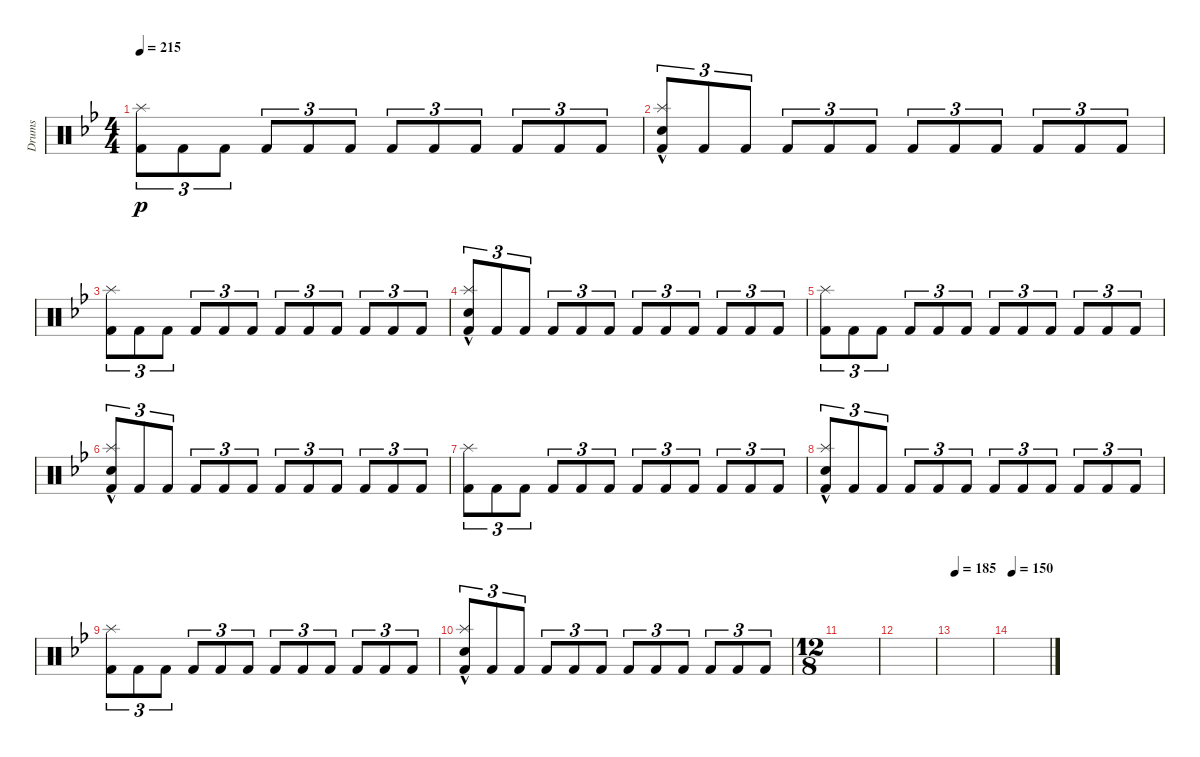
\defaultSystemsLayout 4
\bracketExtendMode groupsimilarinstruments
\otherSystemsTrackNameOrientation horizontal
\track ("Drumkit" "Drums") {instrument percussion}
\staff {score}
\articulation defaults
\ts (4 4)
\tempo 215
\clef neutral
\ks bb
("Kick (hit) 2"{acc forcenatural} "Splash (hit)"{acc forcenatural}).8{tu (3 2) dy p beam Down} "Kick (hit) 2"{acc forcenatural}.8{tu (3 2) beam Down} "Kick (hit) 2"{acc forcenatural}.8{tu (3 2) beam Down} "Kick (hit) 2"{acc forcenatural}.8{tu (3 2) beam Up} "Kick (hit) 2"{acc forcenatural}.8{tu (3 2) beam Up} "Kick (hit) 2"{acc forcenatural}.8{tu (3 2) beam Up} "Kick (hit) 2"{acc forcenatural}.8{tu (3 2) beam Up} "Kick (hit) 2"{acc forcenatural}.8{tu (3 2) beam Up} "Kick (hit) 2"{acc forcenatural}.8{tu (3 2) beam Up} "Kick (hit) 2"{acc forcenatural}.8{tu (3 2) beam Up} "Kick (hit) 2"{acc forcenatural}.8{tu (3 2) beam Up} "Kick (hit) 2"{acc forcenatural}.8{tu (3 2) beam Up} |
("Snare (hit) 2"{hac acc forcenatural} "Kick (hit) 2"{acc forcenatural} "Splash (hit)"{acc forcenatural}).8{tu (3 2) beam Up} "Kick (hit) 2"{acc forcenatural}.8{tu (3 2) beam Up} "Kick (hit) 2"{acc forcenatural}.8{tu (3 2) beam Up} "Kick (hit) 2"{acc forcenatural}.8{tu (3 2) beam Up} "Kick (hit) 2"{acc forcenatural}.8{tu (3 2) beam Up} "Kick (hit) 2"{acc forcenatural}.8{tu (3 2) beam Up} "Kick (hit) 2"{acc forcenatural}.8{tu (3 2) beam Up} "Kick (hit) 2"{acc forcenatural}.8{tu (3 2) beam Up} "Kick (hit) 2"{acc forcenatural}.8{tu (3 2) beam Up} "Kick (hit) 2"{acc forcenatural}.8{tu (3 2) beam Up} "Kick (hit) 2"{acc forcenatural}.8{tu (3 2) beam Up} "Kick (hit) 2"{acc forcenatural}.8{tu (3 2) beam Up} |
("Kick (hit) 2"{acc forcenatural} "Splash (hit)"{acc forcenatural}).8{tu (3 2) beam Down} "Kick (hit) 2"{acc forcenatural}.8{tu (3 2) beam Down} "Kick (hit) 2"{acc forcenatural}.8{tu (3 2) beam Down} "Kick (hit) 2"{acc forcenatural}.8{tu (3 2) beam Up} "Kick (hit) 2"{acc forcenatural}.8{tu (3 2) beam Up} "Kick (hit) 2"{acc forcenatural}.8{tu (3 2) beam Up} "Kick (hit) 2"{acc forcenatural}.8{tu (3 2) beam Up} "Kick (hit) 2"{acc forcenatural}.8{tu (3 2) beam Up} "Kick (hit) 2"{acc forcenatural}.8{tu (3 2) beam Up} "Kick (hit) 2"{acc forcenatural}.8{tu (3 2) beam Up} "Kick (hit) 2"{acc forcenatural}.8{tu (3 2) beam Up} "Kick (hit) 2"{acc forcenatural}.8{tu (3 2) beam Up} |
("Snare (hit) 2"{hac acc forcenatural} "Kick (hit) 2"{acc forcenatural} "Splash (hit)"{acc forcenatural}).8{tu (3 2) beam Up} "Kick (hit) 2"{acc forcenatural}.8{tu (3 2) beam Up} "Kick (hit) 2"{acc forcenatural}.8{tu (3 2) beam Up} "Kick (hit) 2"{acc forcenatural}.8{tu (3 2) beam Up} "Kick (hit) 2"{acc forcenatural}.8{tu (3 2) beam Up} "Kick (hit) 2"{acc forcenatural}.8{tu (3 2) beam Up} "Kick (hit) 2"{acc forcenatural}.8{tu (3 2) beam Up} "Kick (hit) 2"{acc forcenatural}.8{tu (3 2) beam Up} "Kick (hit) 2"{acc forcenatural}.8{tu (3 2) beam Up} "Kick (hit) 2"{acc forcenatural}.8{tu (3 2) beam Up} "Kick (hit) 2"{acc forcenatural}.8{tu (3 2) beam Up} "Kick (hit) 2"{acc forcenatural}.8{tu (3 2) beam Up} |
("Kick (hit) 2"{acc forcenatural} "Splash (hit)"{acc forcenatural}).8{tu (3 2) beam Down} "Kick (hit) 2"{acc forcenatural}.8{tu (3 2) beam Down} "Kick (hit) 2"{acc forcenatural}.8{tu (3 2) beam Down} "Kick (hit) 2"{acc forcenatural}.8{tu (3 2) beam Up} "Kick (hit) 2"{acc forcenatural}.8{tu (3 2) beam Up} "Kick (hit) 2"{acc forcenatural}.8{tu (3 2) beam Up} "Kick (hit) 2"{acc forcenatural}.8{tu (3 2) beam Up} "Kick (hit) 2"{acc forcenatural}.8{tu (3 2) beam Up} "Kick (hit) 2"{acc forcenatural}.8{tu (3 2) beam Up} "Kick (hit) 2"{acc forcenatural}.8{tu (3 2) beam Up} "Kick (hit) 2"{acc forcenatural}.8{tu (3 2) beam Up} "Kick (hit) 2"{acc forcenatural}.8{tu (3 2) beam Up} |
("Snare (hit) 2"{hac acc forcenatural} "Kick (hit) 2"{acc forcenatural} "Splash (hit)"{acc forcenatural}).8{tu (3 2) beam Up} "Kick (hit) 2"{acc forcenatural}.8{tu (3 2) beam Up} "Kick (hit) 2"{acc forcenatural}.8{tu (3 2) beam Up} "Kick (hit) 2"{acc forcenatural}.8{tu (3 2) beam Up} "Kick (hit) 2"{acc forcenatural}.8{tu (3 2) beam Up} "Kick (hit) 2"{acc forcenatural}.8{tu (3 2) beam Up} "Kick (hit) 2"{acc forcenatural}.8{tu (3 2) beam Up} "Kick (hit) 2"{acc forcenatural}.8{tu (3 2) beam Up} "Kick (hit) 2"{acc forcenatural}.8{tu (3 2) beam Up} "Kick (hit) 2"{acc forcenatural}.8{tu (3 2) beam Up} "Kick (hit) 2"{acc forcenatural}.8{tu (3 2) beam Up} "Kick (hit) 2"{acc forcenatural}.8{tu (3 2) beam Up} |
("Kick (hit) 2"{acc forcenatural} "Splash (hit)"{acc forcenatural}).8{tu (3 2) beam Down} "Kick (hit) 2"{acc forcenatural}.8{tu (3 2) beam Down} "Kick (hit) 2"{acc forcenatural}.8{tu (3 2) beam Down} "Kick (hit) 2"{acc forcenatural}.8{tu (3 2) beam Up} "Kick (hit) 2"{acc forcenatural}.8{tu (3 2) beam Up} "Kick (hit) 2"{acc forcenatural}.8{tu (3 2) beam Up} "Kick (hit) 2"{acc forcenatural}.8{tu (3 2) beam Up} "Kick (hit) 2"{acc forcenatural}.8{tu (3 2) beam Up} "Kick (hit) 2"{acc forcenatural}.8{tu (3 2) beam Up} "Kick (hit) 2"{acc forcenatural}.8{tu (3 2) beam Up} "Kick (hit) 2"{acc forcenatural}.8{tu (3 2) beam Up} "Kick (hit) 2"{acc forcenatural}.8{tu (3 2) beam Up} |
("Snare (hit) 2"{hac acc forcenatural} "Kick (hit) 2"{acc forcenatural} "Splash (hit)"{acc forcenatural}).8{tu (3 2) beam Up} "Kick (hit) 2"{acc forcenatural}.8{tu (3 2) beam Up} "Kick (hit) 2"{acc forcenatural}.8{tu (3 2) beam Up} "Kick (hit) 2"{acc forcenatural}.8{tu (3 2) beam Up} "Kick (hit) 2"{acc forcenatural}.8{tu (3 2) beam Up} "Kick (hit) 2"{acc forcenatural}.8{tu (3 2) beam Up} "Kick (hit) 2"{acc forcenatural}.8{tu (3 2) beam Up} "Kick (hit) 2"{acc forcenatural}.8{tu (3 2) beam Up} "Kick (hit) 2"{acc forcenatural}.8{tu (3 2) beam Up} "Kick (hit) 2"{acc forcenatural}.8{tu (3 2) beam Up} "Kick (hit) 2"{acc forcenatural}.8{tu (3 2) beam Up} "Kick (hit) 2"{acc forcenatural}.8{tu (3 2) beam Up} |
("Kick (hit) 2"{acc forcenatural} "Splash (hit)"{acc forcenatural}).8{tu (3 2) beam Down} "Kick (hit) 2"{acc forcenatural}.8{tu (3 2) beam Down} "Kick (hit) 2"{acc forcenatural}.8{tu (3 2) beam Down} "Kick (hit) 2"{acc forcenatural}.8{tu (3 2) beam Up} "Kick (hit) 2"{acc forcenatural}.8{tu (3 2) beam Up} "Kick (hit) 2"{acc forcenatural}.8{tu (3 2) beam Up} "Kick (hit) 2"{acc forcenatural}.8{tu (3 2) beam Up} "Kick (hit) 2"{acc forcenatural}.8{tu (3 2) beam Up} "Kick (hit) 2"{acc forcenatural}.8{tu (3 2) beam Up} "Kick (hit) 2"{acc forcenatural}.8{tu (3 2) beam Up} "Kick (hit) 2"{acc forcenatural}.8{tu (3 2) beam Up} "Kick (hit) 2"{acc forcenatural}.8{tu (3 2) beam Up} |
("Snare (hit) 2"{hac acc forcenatural} "Kick (hit) 2"{acc forcenatural} "Splash (hit)"{acc forcenatural}).8{tu (3 2) beam Up} "Kick (hit) 2"{acc forcenatural}.8{tu (3 2) beam Up} "Kick (hit) 2"{acc forcenatural}.8{tu (3 2) beam Up} "Kick (hit) 2"{acc forcenatural}.8{tu (3 2) beam Up} "Kick (hit) 2"{acc forcenatural}.8{tu (3 2) beam Up} "Kick (hit) 2"{acc forcenatural}.8{tu (3 2) beam Up} "Kick (hit) 2"{acc forcenatural}.8{tu (3 2) beam Up} "Kick (hit) 2"{acc forcenatural}.8{tu (3 2) beam Up} "Kick (hit) 2"{acc forcenatural}.8{tu (3 2) beam Up} "Kick (hit) 2"{acc forcenatural}.8{tu (3 2) beam Up} "Kick (hit) 2"{acc forcenatural}.8{tu (3 2) beam Up} "Kick (hit) 2"{acc forcenatural}.8{tu (3 2) beam Up} |
\ts (12 8)
|
|
\tempo 185
|
\tempo 150
